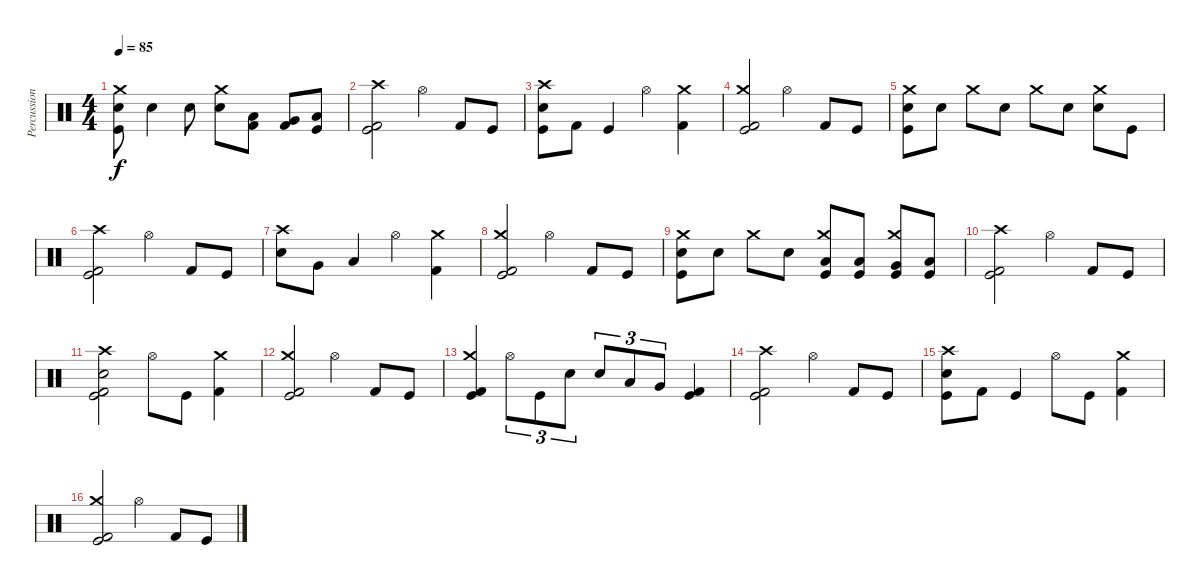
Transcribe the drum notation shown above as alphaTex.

\track ("Percussion" "Percussion") {instrument percussion}
\staff {score}
\articulation defaults
\ts (4 4)
\tempo 85
\clef neutral
\ks c
("Kick (hit)" "Snare (hit) 2" "Crash medium (hit)").8{dy f} "Snare (hit) 2".4 "Snare (hit) 2".8 ("Snare (hit) 2" "Crash medium (hit)").8 ("Kick (hit) 2" "Low Floor Tom (hit)").8 ("Kick (hit) 2" "Very Low Tom (hit)").8 ("Kick (hit)" "Low Floor Tom (hit)").8 |
("Kick (hit)" "Kick (hit) 2" "Crash high (hit)").2 "Hi-Hat (open)".4 "Kick (hit) 2".8 "Kick (hit)".8 |
("Kick (hit)" "Snare (hit) 2" "Crash high (hit)").8 "Kick (hit) 2".8 "Kick (hit)".4 "Hi-Hat (open)".4 ("Kick (hit) 2" "Crash medium (hit)").4 |
("Kick (hit)" "Kick (hit) 2" "Crash medium (hit)").2 "Hi-Hat (open)".4 "Kick (hit) 2".8 "Kick (hit)".8 |
("Kick (hit)" "Snare (hit) 2" "Crash medium (hit)").8 "Snare (hit) 2".8 "Crash medium (hit)".8 "Snare (hit) 2".8 "Crash medium (hit)".8 "Snare (hit) 2".8 ("Snare (hit) 2" "Crash medium (hit)").8 "Kick (hit)".8 |
("Kick (hit)" "Kick (hit) 2" "Crash high (hit)").2 "Hi-Hat (open)".4 "Kick (hit) 2".8 "Kick (hit)".8 |
("Snare (hit) 2" "Crash high (hit)").8 "Very Low Tom (hit)".8 "Low Floor Tom (hit)".4 "Hi-Hat (open)".4 ("Kick (hit) 2" "Crash medium (hit)").4 |
("Kick (hit)" "Kick (hit) 2" "Crash medium (hit)").2 "Hi-Hat (open)".4 "Kick (hit) 2".8 "Kick (hit)".8 |
("Kick (hit)" "Snare (hit) 2" "Crash medium (hit)").8 "Snare (hit) 2".8 "Crash medium (hit)".8 "Snare (hit) 2".8 ("Kick (hit)" "Low Floor Tom (hit)" "Crash medium (hit)").8 ("Kick (hit)" "Low Floor Tom (hit)").8 ("Kick (hit)" "Very Low Tom (hit)" "Crash medium (hit)").8 ("Kick (hit)" "Low Floor Tom (hit)").8 |
("Kick (hit)" "Kick (hit) 2" "Crash high (hit)").2 "Hi-Hat (open)".4 "Kick (hit) 2".8 "Kick (hit)".8 |
("Kick (hit)" "Kick (hit) 2" "Snare (hit) 2" "Crash high (hit)").2 "Hi-Hat (open)".8 "Kick (hit)".8 ("Kick (hit) 2" "Crash medium (hit)").4 |
("Kick (hit)" "Kick (hit) 2" "Crash medium (hit)").2 "Hi-Hat (open)".4 "Kick (hit) 2".8 "Kick (hit)".8 |
("Kick (hit)" "Kick (hit) 2" "Crash medium (hit)").4 "Hi-Hat (open)".8{tu (3 2)} "Kick (hit)".8{tu (3 2)} "Snare (hit) 2".8{tu (3 2)} "Snare (hit) 2".8{tu (3 2)} "Low Floor Tom (hit)".8{tu (3 2)} "Very Low Tom (hit)".8{tu (3 2)} ("Kick (hit)" "Kick (hit) 2").4 |
("Kick (hit)" "Kick (hit) 2" "Crash high (hit)").2 "Hi-Hat (open)".4 "Kick (hit) 2".8 "Kick (hit)".8 |
("Kick (hit)" "Snare (hit) 2" "Crash high (hit)").8 "Kick (hit) 2".8 "Kick (hit)".4 "Hi-Hat (open)".8 "Kick (hit)".8 ("Kick (hit) 2" "Crash medium (hit)").4 |
("Kick (hit)" "Kick (hit) 2" "Crash medium (hit)").2 "Hi-Hat (open)".4 "Kick (hit) 2".8 "Kick (hit)".8
